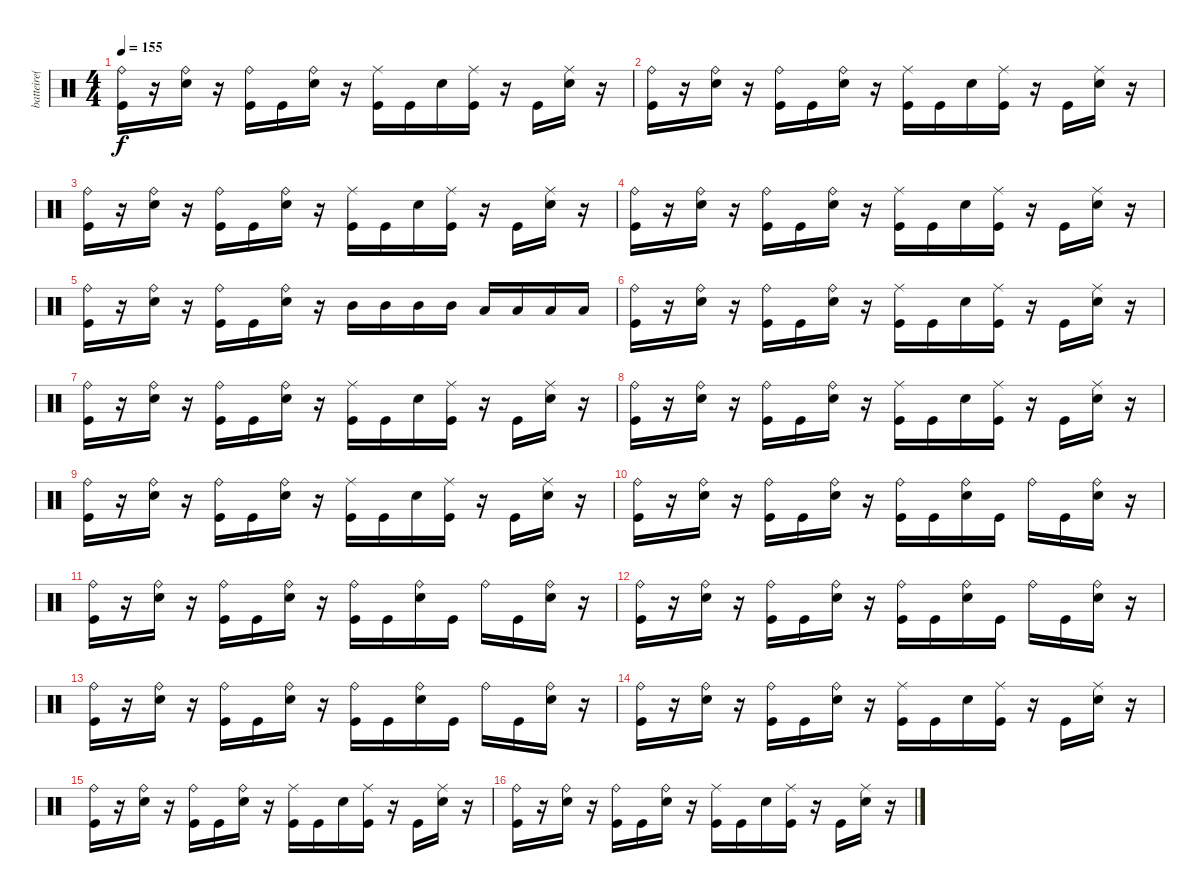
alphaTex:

\track ("batteire( Rob ) " "batteire( ") {instrument percussion}
\staff {score}
\articulation defaults
\ts (4 4)
\tempo 155
\clef neutral
\ks c
("Ride (bell)" "Kick (hit)").16{dy f} r.16 ("Ride (bell)" "Snare (hit) 2").16 r.16 ("Ride (bell)" "Kick (hit)").16 "Kick (hit)".16 ("Ride (bell)" "Snare (hit) 2").16 r.16 ("Ride (middle)" "Kick (hit)").16 "Kick (hit)".16 "Snare (hit) 2".16 ("Ride (middle)" "Kick (hit)").16 r.16 "Kick (hit)".16 ("Ride (middle)" "Snare (hit) 2").16 r.16 |
("Ride (bell)" "Kick (hit)").16 r.16 ("Ride (bell)" "Snare (hit) 2").16 r.16 ("Ride (bell)" "Kick (hit)").16 "Kick (hit)".16 ("Ride (bell)" "Snare (hit) 2").16 r.16 ("Ride (middle)" "Kick (hit)").16 "Kick (hit)".16 "Snare (hit) 2".16 ("Ride (middle)" "Kick (hit)").16 r.16 "Kick (hit)".16 ("Ride (middle)" "Snare (hit) 2").16 r.16 |
("Ride (bell)" "Kick (hit)").16 r.16 ("Ride (bell)" "Snare (hit) 2").16 r.16 ("Ride (bell)" "Kick (hit)").16 "Kick (hit)".16 ("Ride (bell)" "Snare (hit) 2").16 r.16 ("Ride (middle)" "Kick (hit)").16 "Kick (hit)".16 "Snare (hit) 2".16 ("Ride (middle)" "Kick (hit)").16 r.16 "Kick (hit)".16 ("Ride (middle)" "Snare (hit) 2").16 r.16 |
("Ride (bell)" "Kick (hit)").16 r.16 ("Ride (bell)" "Snare (hit) 2").16 r.16 ("Ride (bell)" "Kick (hit)").16 "Kick (hit)".16 ("Ride (bell)" "Snare (hit) 2").16 r.16 ("Ride (middle)" "Kick (hit)").16 "Kick (hit)".16 "Snare (hit) 2".16 ("Ride (middle)" "Kick (hit)").16 r.16 "Kick (hit)".16 ("Ride (middle)" "Snare (hit) 2").16 r.16 |
("Ride (bell)" "Kick (hit)").16 r.16 ("Ride (bell)" "Snare (hit) 2").16 r.16 ("Ride (bell)" "Kick (hit)").16 "Kick (hit)".16 ("Ride (bell)" "Snare (hit) 2").16 r.16 "Mid Tom (hit)".16 "Mid Tom (hit)".16 "Mid Tom (hit)".16 "Mid Tom (hit)".16 "Low Tom (hit)".16 "Low Tom (hit)".16 "Low Tom (hit)".16 "Low Tom (hit)".16 |
("Ride (bell)" "Kick (hit)").16 r.16 ("Ride (bell)" "Snare (hit) 2").16 r.16 ("Ride (bell)" "Kick (hit)").16 "Kick (hit)".16 ("Ride (bell)" "Snare (hit) 2").16 r.16 ("Ride (middle)" "Kick (hit)").16 "Kick (hit)".16 "Snare (hit) 2".16 ("Ride (middle)" "Kick (hit)").16 r.16 "Kick (hit)".16 ("Ride (middle)" "Snare (hit) 2").16 r.16 |
("Ride (bell)" "Kick (hit)").16 r.16 ("Ride (bell)" "Snare (hit) 2").16 r.16 ("Ride (bell)" "Kick (hit)").16 "Kick (hit)".16 ("Ride (bell)" "Snare (hit) 2").16 r.16 ("Ride (middle)" "Kick (hit)").16 "Kick (hit)".16 "Snare (hit) 2".16 ("Ride (middle)" "Kick (hit)").16 r.16 "Kick (hit)".16 ("Ride (middle)" "Snare (hit) 2").16 r.16 |
("Ride (bell)" "Kick (hit)").16 r.16 ("Ride (bell)" "Snare (hit) 2").16 r.16 ("Ride (bell)" "Kick (hit)").16 "Kick (hit)".16 ("Ride (bell)" "Snare (hit) 2").16 r.16 ("Ride (middle)" "Kick (hit)").16 "Kick (hit)".16 "Snare (hit) 2".16 ("Ride (middle)" "Kick (hit)").16 r.16 "Kick (hit)".16 ("Ride (middle)" "Snare (hit) 2").16 r.16 |
("Ride (bell)" "Kick (hit)").16 r.16 ("Ride (bell)" "Snare (hit) 2").16 r.16 ("Ride (bell)" "Kick (hit)").16 "Kick (hit)".16 ("Ride (bell)" "Snare (hit) 2").16 r.16 ("Ride (middle)" "Kick (hit)").16 "Kick (hit)".16 "Snare (hit) 2".16 ("Ride (middle)" "Kick (hit)").16 r.16 "Kick (hit)".16 ("Ride (middle)" "Snare (hit) 2").16 r.16 |
("Ride (bell)" "Kick (hit)").16 r.16 ("Ride (bell)" "Snare (hit) 2").16 r.16 ("Ride (bell)" "Kick (hit)").16 "Kick (hit)".16 ("Ride (bell)" "Snare (hit) 2").16 r.16 ("Ride (bell)" "Kick (hit)").16 "Kick (hit)".16 ("Ride (bell)" "Snare (hit) 2").16 "Kick (hit)".16 "Ride (bell)".16 "Kick (hit)".16 ("Ride (bell)" "Snare (hit) 2").16 r.16 |
("Ride (bell)" "Kick (hit)").16 r.16 ("Ride (bell)" "Snare (hit) 2").16 r.16 ("Ride (bell)" "Kick (hit)").16 "Kick (hit)".16 ("Ride (bell)" "Snare (hit) 2").16 r.16 ("Ride (bell)" "Kick (hit)").16 "Kick (hit)".16 ("Ride (bell)" "Snare (hit) 2").16 "Kick (hit)".16 "Ride (bell)".16 "Kick (hit)".16 ("Ride (bell)" "Snare (hit) 2").16 r.16 |
("Ride (bell)" "Kick (hit)").16 r.16 ("Ride (bell)" "Snare (hit) 2").16 r.16 ("Ride (bell)" "Kick (hit)").16 "Kick (hit)".16 ("Ride (bell)" "Snare (hit) 2").16 r.16 ("Ride (bell)" "Kick (hit)").16 "Kick (hit)".16 ("Ride (bell)" "Snare (hit) 2").16 "Kick (hit)".16 "Ride (bell)".16 "Kick (hit)".16 ("Ride (bell)" "Snare (hit) 2").16 r.16 |
("Ride (bell)" "Kick (hit)").16 r.16 ("Ride (bell)" "Snare (hit) 2").16 r.16 ("Ride (bell)" "Kick (hit)").16 "Kick (hit)".16 ("Ride (bell)" "Snare (hit) 2").16 r.16 ("Ride (bell)" "Kick (hit)").16 "Kick (hit)".16 ("Ride (bell)" "Snare (hit) 2").16 "Kick (hit)".16 "Ride (bell)".16 "Kick (hit)".16 ("Ride (bell)" "Snare (hit) 2").16 r.16 |
("Ride (bell)" "Kick (hit)").16 r.16 ("Ride (bell)" "Snare (hit) 2").16 r.16 ("Ride (bell)" "Kick (hit)").16 "Kick (hit)".16 ("Ride (bell)" "Snare (hit) 2").16 r.16 ("Ride (middle)" "Kick (hit)").16 "Kick (hit)".16 "Snare (hit) 2".16 ("Ride (middle)" "Kick (hit)").16 r.16 "Kick (hit)".16 ("Ride (middle)" "Snare (hit) 2").16 r.16 |
("Ride (bell)" "Kick (hit)").16 r.16 ("Ride (bell)" "Snare (hit) 2").16 r.16 ("Ride (bell)" "Kick (hit)").16 "Kick (hit)".16 ("Ride (bell)" "Snare (hit) 2").16 r.16 ("Ride (middle)" "Kick (hit)").16 "Kick (hit)".16 "Snare (hit) 2".16 ("Ride (middle)" "Kick (hit)").16 r.16 "Kick (hit)".16 ("Ride (middle)" "Snare (hit) 2").16 r.16 |
("Ride (bell)" "Kick (hit)").16 r.16 ("Ride (bell)" "Snare (hit) 2").16 r.16 ("Ride (bell)" "Kick (hit)").16 "Kick (hit)".16 ("Ride (bell)" "Snare (hit) 2").16 r.16 ("Ride (middle)" "Kick (hit)").16 "Kick (hit)".16 "Snare (hit) 2".16 ("Ride (middle)" "Kick (hit)").16 r.16 "Kick (hit)".16 ("Ride (middle)" "Snare (hit) 2").16 r.16
